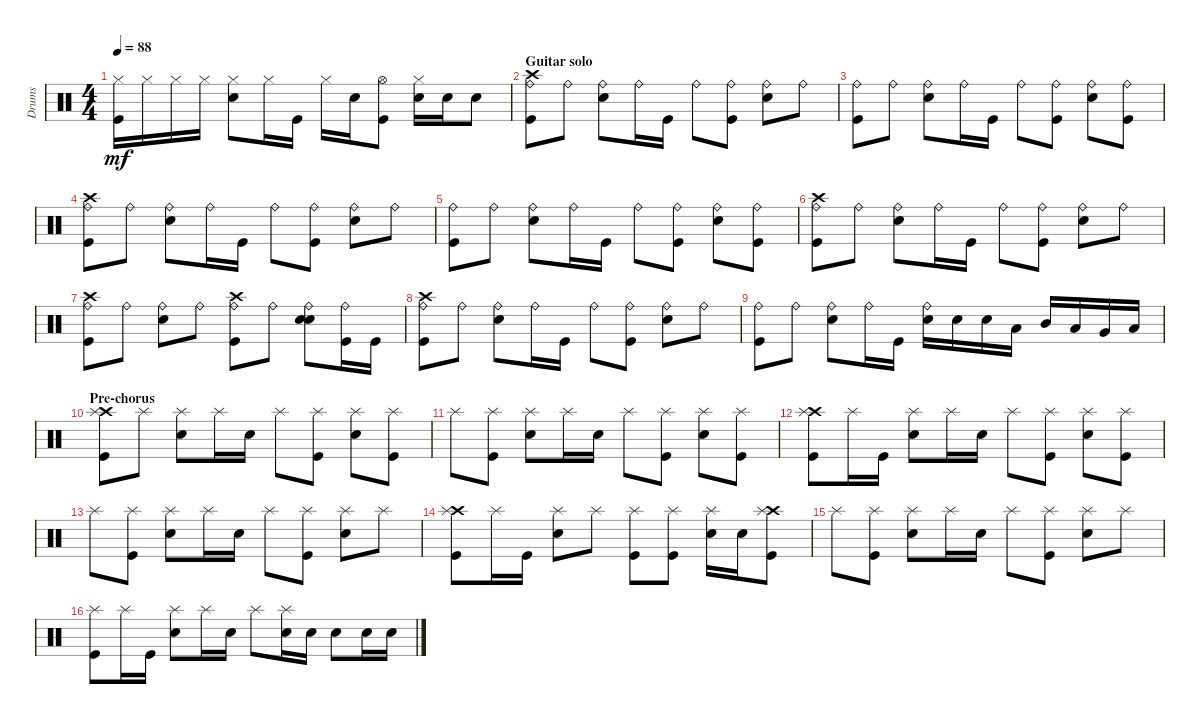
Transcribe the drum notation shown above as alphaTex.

\track ("Drums" "Drums") {instrument percussion}
\staff {score}
\articulation defaults
\ts (4 4)
\tempo 88
\clef neutral
\ks c
("Hi-Hat (closed)" "Kick (hit)").16{dy mf} "Hi-Hat (closed)".16 "Hi-Hat (closed)".16 "Hi-Hat (closed)".16 ("Hi-Hat (closed)" "Electric Snare (hit)").8 "Hi-Hat (closed)".16 "Kick (hit)".16 "Hi-Hat (closed)".16 "Electric Snare (hit)".16 ("Hi-Hat (open)" "Kick (hit)").8 ("Hi-Hat (closed)" "Electric Snare (hit)").16 "Electric Snare (hit)".16 "Electric Snare (hit)".8 |
\section ("" "Guitar solo")
("Crash high (hit)" "Kick (hit)" "Ride (bell)").8 "Ride (bell)".8 ("Ride (bell)" "Electric Snare (hit)").8 "Ride (bell)".16 "Kick (hit)".16 "Ride (bell)".8 ("Ride (bell)" "Kick (hit)").8 ("Ride (bell)" "Electric Snare (hit)").8 "Ride (bell)".8 |
("Kick (hit)" "Ride (bell)").8 "Ride (bell)".8 ("Electric Snare (hit)" "Ride (bell)").8 "Ride (bell)".16 "Kick (hit)".16 "Ride (bell)".8 ("Ride (bell)" "Kick (hit)").8 ("Electric Snare (hit)" "Ride (bell)").8 ("Ride (bell)" "Kick (hit)").8 |
("Crash high (hit)" "Ride (bell)" "Kick (hit)").8 "Ride (bell)".8 ("Ride (bell)" "Electric Snare (hit)").8 "Ride (bell)".16 "Kick (hit)".16 "Ride (bell)".8 ("Kick (hit)" "Ride (bell)").8 ("Ride (bell)" "Electric Snare (hit)").8 "Ride (bell)".8 |
("Ride (bell)" "Kick (hit)").8 "Ride (bell)".8 ("Ride (bell)" "Electric Snare (hit)").8 "Ride (bell)".16 "Kick (hit)".16 "Ride (bell)".8 ("Ride (bell)" "Kick (hit)").8 ("Ride (bell)" "Electric Snare (hit)").8 ("Ride (bell)" "Kick (hit)").8 |
("Crash high (hit)" "Ride (bell)" "Kick (hit)").8 "Ride (bell)".8 ("Electric Snare (hit)" "Ride (bell)").8 "Ride (bell)".16 "Kick (hit)".16 "Ride (bell)".8 ("Ride (bell)" "Kick (hit)").8 ("Electric Snare (hit)" "Ride (bell)").8 "Ride (bell)".8 |
("Kick (hit)" "Crash high (hit)" "Ride (bell)").8 "Ride (bell)".8 ("Ride (bell)" "Electric Snare (hit)").8 "Ride (bell)".8 ("Ride (bell)" "Kick (hit)" "Crash high (hit)").8 "Ride (bell)".8 ("Hand Clap (hit)" "Electric Snare (hit)" "Ride (bell)").8 ("Kick (hit)" "Ride (bell)").16 "Kick (hit)".16 |
("Crash high (hit)" "Kick (hit)" "Ride (bell)").8 "Ride (bell)".8 ("Ride (bell)" "Electric Snare (hit)").8 "Ride (bell)".16 "Kick (hit)".16 "Ride (bell)".8 ("Kick (hit)" "Ride (bell)").8 ("Ride (bell)" "Electric Snare (hit)").8 "Ride (bell)".8 |
("Kick (hit)" "Ride (bell)").8 "Ride (bell)".8 ("Ride (bell)" "Electric Snare (hit)").8 "Ride (bell)".16 "Kick (hit)".16 ("Electric Snare (hit)" "Ride (bell)").16 "Electric Snare (hit)".16 "Electric Snare (hit)".16 "Low Tom (hit)".16 "Mid Tom (hit)".16 "Low Tom (hit)".16 "Very Low Tom (hit)".16 "Low Floor Tom (hit)".16 |
\section ("" "Pre-chorus")
("Crash high (hit)" "Kick (hit)" "Splash (hit)").8 "Splash (hit)".8 ("Electric Snare (hit)" "Splash (hit)").8 "Splash (hit)".16 "Electric Snare (hit)".16 "Splash (hit)".8 ("Splash (hit)" "Kick (hit)").8 ("Electric Snare (hit)" "Splash (hit)").8 ("Splash (hit)" "Kick (hit)").8 |
"Splash (hit)".8 ("Kick (hit)" "Splash (hit)").8 ("Splash (hit)" "Electric Snare (hit)").8 "Splash (hit)".16 "Electric Snare (hit)".16 "Splash (hit)".8 ("Splash (hit)" "Kick (hit)").8 ("Electric Snare (hit)" "Splash (hit)").8 ("Kick (hit)" "Splash (hit)").8 |
("Kick (hit)" "Crash high (hit)" "Splash (hit)").8 "Splash (hit)".16 "Kick (hit)".16 ("Splash (hit)" "Electric Snare (hit)").8 "Splash (hit)".16 "Electric Snare (hit)".16 "Splash (hit)".8 ("Splash (hit)" "Kick (hit)").8 ("Splash (hit)" "Electric Snare (hit)").8 ("Splash (hit)" "Kick (hit)").8 |
"Splash (hit)".8 ("Splash (hit)" "Kick (hit)").8 ("Splash (hit)" "Electric Snare (hit)").8 "Splash (hit)".16 "Electric Snare (hit)".16 "Splash (hit)".8 ("Kick (hit)" "Splash (hit)").8 ("Electric Snare (hit)" "Splash (hit)").8 "Splash (hit)".8 |
("Crash high (hit)" "Kick (hit)" "Splash (hit)").8 "Splash (hit)".16 "Kick (hit)".16 ("Splash (hit)" "Electric Snare (hit)").8 "Splash (hit)".8 ("Splash (hit)" "Kick (hit)").8 ("Splash (hit)" "Kick (hit)").8 ("Electric Snare (hit)" "Splash (hit)").16 "Electric Snare (hit)".16 ("Kick (hit)" "Crash high (hit)" "Splash (hit)").8 |
"Splash (hit)".8 ("Splash (hit)" "Kick (hit)").8 ("Electric Snare (hit)" "Splash (hit)").8 "Splash (hit)".16 "Electric Snare (hit)".16 "Splash (hit)".8 ("Kick (hit)" "Splash (hit)").8 ("Splash (hit)" "Electric Snare (hit)").8 "Splash (hit)".8 |
("Kick (hit)" "Splash (hit)").8 "Splash (hit)".16 "Kick (hit)".16 ("Electric Snare (hit)" "Splash (hit)").8 "Splash (hit)".16 "Electric Snare (hit)".16 "Splash (hit)".8 ("Electric Snare (hit)" "Splash (hit)").16 "Electric Snare (hit)".16 "Electric Snare (hit)".8 "Electric Snare (hit)".16 "Electric Snare (hit)".16
